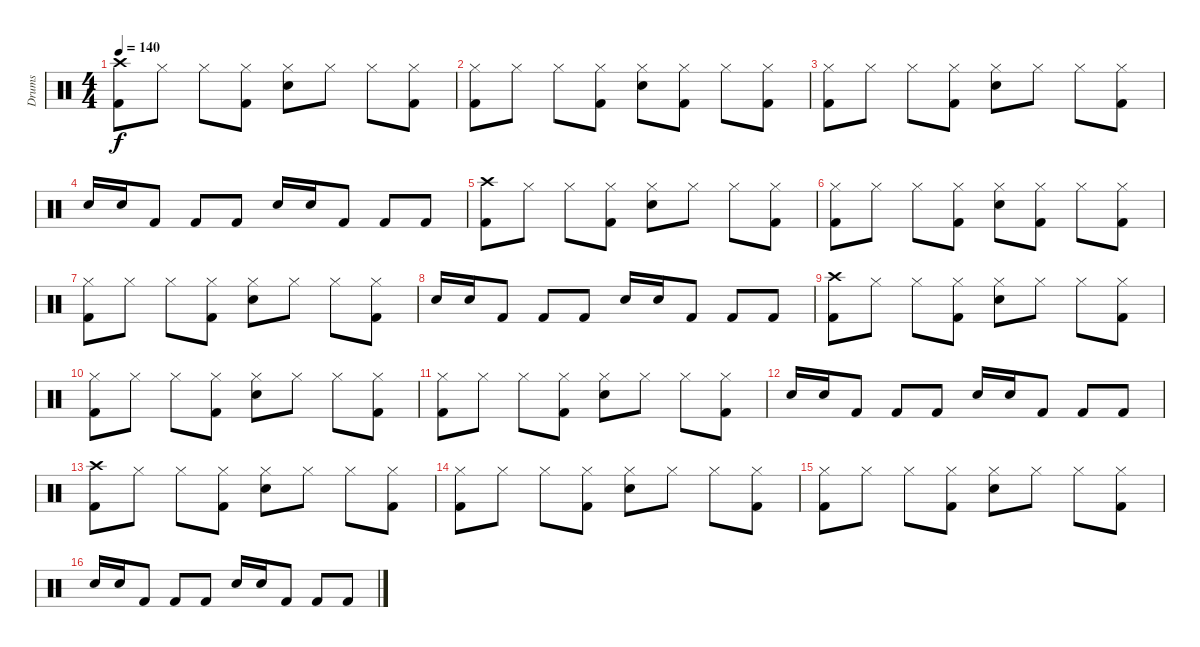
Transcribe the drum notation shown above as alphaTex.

\track ("Drums" "Drums") {instrument percussion}
\staff {score}
\articulation defaults
\ts (4 4)
\tempo 140
\clef neutral
\ks c
("Kick (hit) 2" "Crash high (hit)").8{dy f} "Hi-Hat (closed)".8 "Hi-Hat (closed)".8 ("Kick (hit) 2" "Hi-Hat (closed)").8 ("Snare (hit) 2" "Hi-Hat (closed)").8 "Hi-Hat (closed)".8 "Hi-Hat (closed)".8 ("Kick (hit) 2" "Hi-Hat (closed)").8 |
("Kick (hit) 2" "Hi-Hat (closed)").8 "Hi-Hat (closed)".8 "Hi-Hat (closed)".8 ("Kick (hit) 2" "Hi-Hat (closed)").8 ("Snare (hit) 2" "Hi-Hat (closed)").8 ("Kick (hit) 2" "Hi-Hat (closed)").8 "Hi-Hat (closed)".8 ("Kick (hit) 2" "Hi-Hat (closed)").8 |
("Kick (hit) 2" "Hi-Hat (closed)").8 "Hi-Hat (closed)".8 "Hi-Hat (closed)".8 ("Kick (hit) 2" "Hi-Hat (closed)").8 ("Snare (hit) 2" "Hi-Hat (closed)").8 "Hi-Hat (closed)".8 "Hi-Hat (closed)".8 ("Kick (hit) 2" "Hi-Hat (closed)").8 |
"Snare (hit) 2".16 "Snare (hit) 2".16 "Kick (hit) 2".8 "Kick (hit) 2".8 "Kick (hit) 2".8 "Snare (hit) 2".16 "Snare (hit) 2".16 "Kick (hit) 2".8 "Kick (hit) 2".8 "Kick (hit) 2".8 |
("Kick (hit) 2" "Crash high (hit)").8 "Hi-Hat (closed)".8 "Hi-Hat (closed)".8 ("Kick (hit) 2" "Hi-Hat (closed)").8 ("Snare (hit) 2" "Hi-Hat (closed)").8 "Hi-Hat (closed)".8 "Hi-Hat (closed)".8 ("Kick (hit) 2" "Hi-Hat (closed)").8 |
("Kick (hit) 2" "Hi-Hat (closed)").8 "Hi-Hat (closed)".8 "Hi-Hat (closed)".8 ("Kick (hit) 2" "Hi-Hat (closed)").8 ("Snare (hit) 2" "Hi-Hat (closed)").8 ("Kick (hit) 2" "Hi-Hat (closed)").8 "Hi-Hat (closed)".8 ("Kick (hit) 2" "Hi-Hat (closed)").8 |
("Kick (hit) 2" "Hi-Hat (closed)").8 "Hi-Hat (closed)".8 "Hi-Hat (closed)".8 ("Kick (hit) 2" "Hi-Hat (closed)").8 ("Snare (hit) 2" "Hi-Hat (closed)").8 "Hi-Hat (closed)".8 "Hi-Hat (closed)".8 ("Kick (hit) 2" "Hi-Hat (closed)").8 |
"Snare (hit) 2".16 "Snare (hit) 2".16 "Kick (hit) 2".8 "Kick (hit) 2".8 "Kick (hit) 2".8 "Snare (hit) 2".16 "Snare (hit) 2".16 "Kick (hit) 2".8 "Kick (hit) 2".8 "Kick (hit) 2".8 |
("Kick (hit) 2" "Crash high (hit)").8 "Hi-Hat (closed)".8 "Hi-Hat (closed)".8 ("Kick (hit) 2" "Hi-Hat (closed)").8 ("Snare (hit) 2" "Hi-Hat (closed)").8 "Hi-Hat (closed)".8 "Hi-Hat (closed)".8 ("Kick (hit) 2" "Hi-Hat (closed)").8 |
("Kick (hit) 2" "Hi-Hat (closed)").8 "Hi-Hat (closed)".8 "Hi-Hat (closed)".8 ("Kick (hit) 2" "Hi-Hat (closed)").8 ("Snare (hit) 2" "Hi-Hat (closed)").8 "Hi-Hat (closed)".8 "Hi-Hat (closed)".8 ("Kick (hit) 2" "Hi-Hat (closed)").8 |
("Kick (hit) 2" "Hi-Hat (closed)").8 "Hi-Hat (closed)".8 "Hi-Hat (closed)".8 ("Kick (hit) 2" "Hi-Hat (closed)").8 ("Snare (hit) 2" "Hi-Hat (closed)").8 "Hi-Hat (closed)".8 "Hi-Hat (closed)".8 ("Kick (hit) 2" "Hi-Hat (closed)").8 |
"Snare (hit) 2".16 "Snare (hit) 2".16 "Kick (hit) 2".8 "Kick (hit) 2".8 "Kick (hit) 2".8 "Snare (hit) 2".16 "Snare (hit) 2".16 "Kick (hit) 2".8 "Kick (hit) 2".8 "Kick (hit) 2".8 |
("Kick (hit) 2" "Crash high (hit)").8 "Hi-Hat (closed)".8 "Hi-Hat (closed)".8 ("Kick (hit) 2" "Hi-Hat (closed)").8 ("Snare (hit) 2" "Hi-Hat (closed)").8 "Hi-Hat (closed)".8 "Hi-Hat (closed)".8 ("Kick (hit) 2" "Hi-Hat (closed)").8 |
("Kick (hit) 2" "Hi-Hat (closed)").8 "Hi-Hat (closed)".8 "Hi-Hat (closed)".8 ("Kick (hit) 2" "Hi-Hat (closed)").8 ("Snare (hit) 2" "Hi-Hat (closed)").8 "Hi-Hat (closed)".8 "Hi-Hat (closed)".8 ("Kick (hit) 2" "Hi-Hat (closed)").8 |
("Kick (hit) 2" "Hi-Hat (closed)").8 "Hi-Hat (closed)".8 "Hi-Hat (closed)".8 ("Kick (hit) 2" "Hi-Hat (closed)").8 ("Snare (hit) 2" "Hi-Hat (closed)").8 "Hi-Hat (closed)".8 "Hi-Hat (closed)".8 ("Kick (hit) 2" "Hi-Hat (closed)").8 |
"Snare (hit) 2".16 "Snare (hit) 2".16 "Kick (hit) 2".8 "Kick (hit) 2".8 "Kick (hit) 2".8 "Snare (hit) 2".16 "Snare (hit) 2".16 "Kick (hit) 2".8 "Kick (hit) 2".8 "Kick (hit) 2".8
